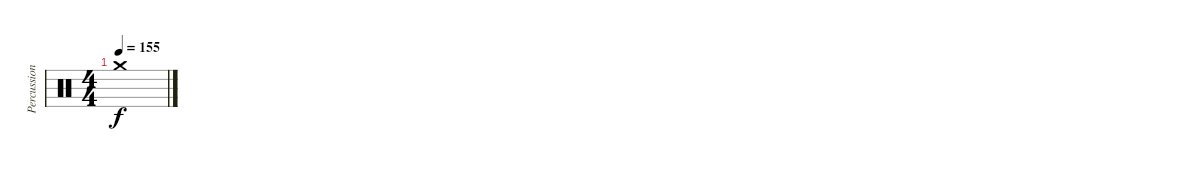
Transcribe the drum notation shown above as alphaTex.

\track ("Percussion" "Percussion") {instrument percussion}
\staff {score}
\articulation defaults
\ts (4 4)
\tempo 155
\clef neutral
\ks c "Crash medium (hit)".1{dy f}
